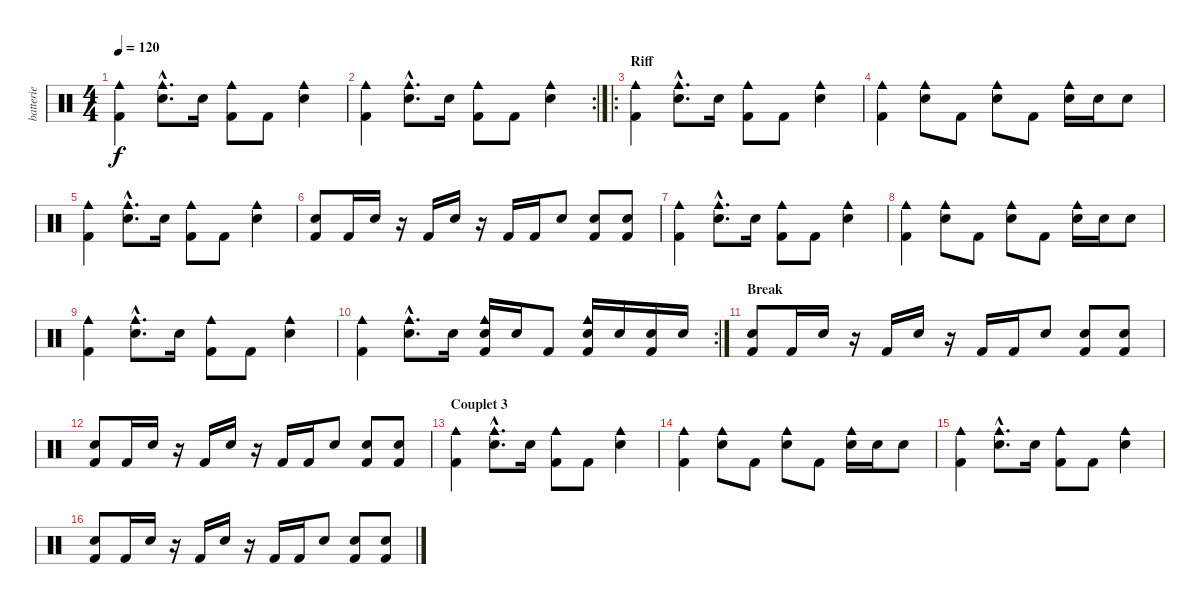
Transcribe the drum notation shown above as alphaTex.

\track ("batterie" "batterie") {instrument percussion}
\staff {score}
\articulation defaults
\ts (4 4)
\tempo 120
\clef neutral
\ks c
("Kick (hit) 2" "Cowbell medium (hit)").4{dy f} ("Electric Snare (hit)"{hac} "Cowbell medium (hit)"{hac}).8{d} "Electric Snare (hit)".16 ("Kick (hit) 2" "Cowbell medium (hit)").8 "Kick (hit) 2".8 ("Electric Snare (hit)" "Cowbell medium (hit)").4 |
\rc 2
("Kick (hit) 2" "Cowbell medium (hit)").4 ("Electric Snare (hit)"{hac} "Cowbell medium (hit)"{hac}).8{d} "Electric Snare (hit)".16 ("Kick (hit) 2" "Cowbell medium (hit)").8 "Kick (hit) 2".8 ("Electric Snare (hit)" "Cowbell medium (hit)").4 |
\ro
\section ("" "Riff")
("Kick (hit) 2" "Cowbell medium (hit)").4 ("Electric Snare (hit)"{hac} "Cowbell medium (hit)"{hac}).8{d} "Electric Snare (hit)".16 ("Kick (hit) 2" "Cowbell medium (hit)").8 "Kick (hit) 2".8 ("Electric Snare (hit)" "Cowbell medium (hit)").4 |
("Kick (hit) 2" "Cowbell medium (hit)").4 ("Electric Snare (hit)" "Cowbell medium (hit)").8 "Kick (hit) 2".8 ("Electric Snare (hit)" "Cowbell medium (hit)").8 "Kick (hit) 2".8 ("Electric Snare (hit)" "Cowbell medium (hit)").16 "Electric Snare (hit)".16 "Electric Snare (hit)".8 |
("Kick (hit) 2" "Cowbell medium (hit)").4 ("Electric Snare (hit)"{hac} "Cowbell medium (hit)"{hac}).8{d} "Electric Snare (hit)".16 ("Kick (hit) 2" "Cowbell medium (hit)").8 "Kick (hit) 2".8 ("Electric Snare (hit)" "Cowbell medium (hit)").4 |
("Kick (hit) 2" "Electric Snare (hit)").8 "Kick (hit) 2".16 "Electric Snare (hit)".16 r.16 "Kick (hit) 2".16 "Electric Snare (hit)".16 r.16 "Kick (hit) 2".16 "Kick (hit) 2".16 "Electric Snare (hit)".8 ("Kick (hit) 2" "Electric Snare (hit)").8 ("Kick (hit) 2" "Electric Snare (hit)").8 |
("Kick (hit) 2" "Cowbell medium (hit)").4 ("Electric Snare (hit)"{hac} "Cowbell medium (hit)"{hac}).8{d} "Electric Snare (hit)".16 ("Kick (hit) 2" "Cowbell medium (hit)").8 "Kick (hit) 2".8 ("Electric Snare (hit)" "Cowbell medium (hit)").4 |
("Kick (hit) 2" "Cowbell medium (hit)").4 ("Electric Snare (hit)" "Cowbell medium (hit)").8 "Kick (hit) 2".8 ("Electric Snare (hit)" "Cowbell medium (hit)").8 "Kick (hit) 2".8 ("Electric Snare (hit)" "Cowbell medium (hit)").16 "Electric Snare (hit)".16 "Electric Snare (hit)".8 |
("Kick (hit) 2" "Cowbell medium (hit)").4 ("Electric Snare (hit)"{hac} "Cowbell medium (hit)"{hac}).8{d} "Electric Snare (hit)".16 ("Kick (hit) 2" "Cowbell medium (hit)").8 "Kick (hit) 2".8 ("Electric Snare (hit)" "Cowbell medium (hit)").4 |
\rc 2
("Kick (hit) 2" "Cowbell medium (hit)").4 ("Electric Snare (hit)"{hac} "Cowbell medium (hit)"{hac}).8{d} "Electric Snare (hit)".16 ("Kick (hit) 2" "Electric Snare (hit)" "Cowbell medium (hit)").16 "Electric Snare (hit)".16 "Kick (hit) 2".8 ("Kick (hit) 2" "Electric Snare (hit)" "Cowbell medium (hit)").16 "Electric Snare (hit)".16 ("Kick (hit) 2" "Electric Snare (hit)").16 "Electric Snare (hit)".16 |
\section ("" "Break")
("Kick (hit) 2" "Electric Snare (hit)").8 "Kick (hit) 2".16 "Electric Snare (hit)".16 r.16 "Kick (hit) 2".16 "Electric Snare (hit)".16 r.16 "Kick (hit) 2".16 "Kick (hit) 2".16 "Electric Snare (hit)".8 ("Kick (hit) 2" "Electric Snare (hit)").8 ("Kick (hit) 2" "Electric Snare (hit)").8 |
("Kick (hit) 2" "Electric Snare (hit)").8 "Kick (hit) 2".16 "Electric Snare (hit)".16 r.16 "Kick (hit) 2".16 "Electric Snare (hit)".16 r.16 "Kick (hit) 2".16 "Kick (hit) 2".16 "Electric Snare (hit)".8 ("Kick (hit) 2" "Electric Snare (hit)").8 ("Kick (hit) 2" "Electric Snare (hit)").8 |
\section ("" "Couplet 3")
("Kick (hit) 2" "Cowbell medium (hit)").4 ("Electric Snare (hit)"{hac} "Cowbell medium (hit)"{hac}).8{d} "Electric Snare (hit)".16 ("Kick (hit) 2" "Cowbell medium (hit)").8 "Kick (hit) 2".8 ("Electric Snare (hit)" "Cowbell medium (hit)").4 |
("Kick (hit) 2" "Cowbell medium (hit)").4 ("Electric Snare (hit)" "Cowbell medium (hit)").8 "Kick (hit) 2".8 ("Electric Snare (hit)" "Cowbell medium (hit)").8 "Kick (hit) 2".8 ("Electric Snare (hit)" "Cowbell medium (hit)").16 "Electric Snare (hit)".16 "Electric Snare (hit)".8 |
("Kick (hit) 2" "Cowbell medium (hit)").4 ("Electric Snare (hit)"{hac} "Cowbell medium (hit)"{hac}).8{d} "Electric Snare (hit)".16 ("Kick (hit) 2" "Cowbell medium (hit)").8 "Kick (hit) 2".8 ("Electric Snare (hit)" "Cowbell medium (hit)").4 |
("Kick (hit) 2" "Electric Snare (hit)").8 "Kick (hit) 2".16 "Electric Snare (hit)".16 r.16 "Kick (hit) 2".16 "Electric Snare (hit)".16 r.16 "Kick (hit) 2".16 "Kick (hit) 2".16 "Electric Snare (hit)".8 ("Kick (hit) 2" "Electric Snare (hit)").8 ("Kick (hit) 2" "Electric Snare (hit)").8
